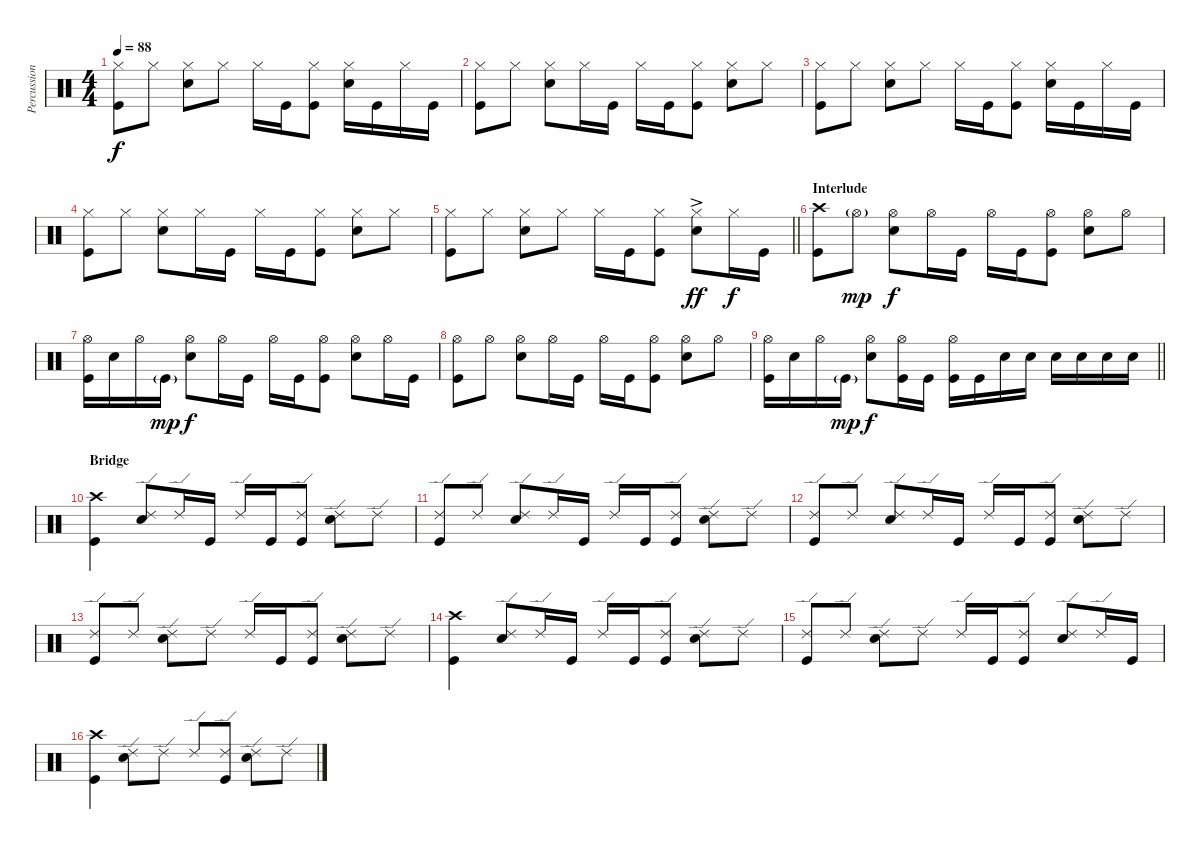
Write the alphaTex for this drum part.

\track ("Percussion" "Percussion") {instrument percussion}
\staff {score}
\articulation defaults
\ts (4 4)
\tempo 88
\clef neutral
\ks c
("Hi-Hat (closed)" "Kick (hit)").8{dy f} "Hi-Hat (closed)".8 ("Hi-Hat (closed)" "Snare (hit) 2").8 "Hi-Hat (closed)".8 "Hi-Hat (closed)".16 "Kick (hit)".16 ("Hi-Hat (closed)" "Kick (hit)").8 ("Hi-Hat (closed)" "Snare (hit) 2").16 "Kick (hit)".16 "Hi-Hat (closed)".16 "Kick (hit)".16 |
("Hi-Hat (closed)" "Kick (hit)").8 "Hi-Hat (closed)".8 ("Hi-Hat (closed)" "Snare (hit) 2").8 "Hi-Hat (closed)".16 "Kick (hit)".16 "Hi-Hat (closed)".16 "Kick (hit)".16 ("Hi-Hat (closed)" "Kick (hit)").8 ("Hi-Hat (closed)" "Snare (hit) 2").8 "Hi-Hat (closed)".8 |
("Hi-Hat (closed)" "Kick (hit)").8 "Hi-Hat (closed)".8 ("Hi-Hat (closed)" "Snare (hit) 2").8 "Hi-Hat (closed)".8 "Hi-Hat (closed)".16 "Kick (hit)".16 ("Hi-Hat (closed)" "Kick (hit)").8 ("Hi-Hat (closed)" "Snare (hit) 2").16 "Kick (hit)".16 "Hi-Hat (closed)".16 "Kick (hit)".16 |
("Hi-Hat (closed)" "Kick (hit)").8 "Hi-Hat (closed)".8 ("Hi-Hat (closed)" "Snare (hit) 2").8 "Hi-Hat (closed)".16 "Kick (hit)".16 "Hi-Hat (closed)".16 "Kick (hit)".16 ("Hi-Hat (closed)" "Kick (hit)").8 ("Hi-Hat (closed)" "Snare (hit) 2").8 "Hi-Hat (closed)".8 |
\barLineRight lightlight
("Hi-Hat (closed)" "Kick (hit)").8 "Hi-Hat (closed)".8 ("Hi-Hat (closed)" "Snare (hit) 2").8 "Hi-Hat (closed)".8 "Hi-Hat (closed)".16 "Kick (hit)".16 ("Hi-Hat (closed)" "Kick (hit)").8 ("Hi-Hat (closed)" "Snare (hit) 2"{ac}).8{dy ff} "Hi-Hat (closed)".16{dy f} "Kick (hit)".16 |
\section ("" "Interlude")
("Crash high (hit)" "Kick (hit)").8 "Hi-Hat (open)"{g}.8{dy mp} ("Hi-Hat (open)" "Snare (hit) 2").8{dy f} "Hi-Hat (open)".16 "Kick (hit)".16 "Hi-Hat (open)".16 "Kick (hit)".16 ("Hi-Hat (open)" "Kick (hit)").8 ("Hi-Hat (open)" "Snare (hit) 2").8 "Hi-Hat (open)".8 |
("Hi-Hat (open)" "Kick (hit)").16 "Snare (hit) 2".16 "Hi-Hat (open)".16 "Kick (hit)"{g}.16{dy mp} ("Hi-Hat (open)" "Snare (hit) 2").8{dy f} "Hi-Hat (open)".16 "Kick (hit)".16 "Hi-Hat (open)".16 "Kick (hit)".16 ("Hi-Hat (open)" "Kick (hit)").8 ("Hi-Hat (open)" "Snare (hit) 2").8 "Hi-Hat (open)".16 "Kick (hit)".16 |
("Hi-Hat (open)" "Kick (hit)").8 "Hi-Hat (open)".8 ("Hi-Hat (open)" "Snare (hit) 2").8 "Hi-Hat (open)".16 "Kick (hit)".16 "Hi-Hat (open)".16 "Kick (hit)".16 ("Hi-Hat (open)" "Kick (hit)").8 ("Hi-Hat (open)" "Snare (hit) 2").8 "Hi-Hat (open)".8 |
\barLineRight lightlight
("Hi-Hat (open)" "Kick (hit)").16 "Snare (hit) 2".16 "Hi-Hat (open)".16 "Kick (hit)"{g}.16{dy mp} ("Hi-Hat (open)" "Snare (hit) 2").8{dy f} ("Hi-Hat (open)" "Kick (hit)").16 "Kick (hit)".16 ("Hi-Hat (open)" "Kick (hit)").16 "Kick (hit)".16 "Snare (hit) 2".16 "Snare (hit) 2".16 "Snare (hit) 2".16 "Snare (hit) 2".16 "Snare (hit) 2".16 "Snare (hit) 2".16 |
\section ("" "Bridge")
("Crash high (hit)" "Kick (hit)").4 ("Ride (edge) 2" "Snare (hit) 2").8 "Ride (edge) 2".16 "Kick (hit)".16 "Ride (edge) 2".16 "Kick (hit)".16 ("Ride (edge) 2" "Kick (hit)").8 ("Ride (edge) 2" "Snare (hit) 2").8 "Ride (edge) 2".8 |
("Ride (edge) 2" "Kick (hit)").8 "Ride (edge) 2".8 ("Ride (edge) 2" "Snare (hit) 2").8 "Ride (edge) 2".16 "Kick (hit)".16 "Ride (edge) 2".16 "Kick (hit)".16 ("Ride (edge) 2" "Kick (hit)").8 ("Ride (edge) 2" "Snare (hit) 2").8 "Ride (edge) 2".8 |
("Ride (edge) 2" "Kick (hit)").8 "Ride (edge) 2".8 ("Ride (edge) 2" "Snare (hit) 2").8 "Ride (edge) 2".16 "Kick (hit)".16 "Ride (edge) 2".16 "Kick (hit)".16 ("Ride (edge) 2" "Kick (hit)").8 ("Ride (edge) 2" "Snare (hit) 2").8 "Ride (edge) 2".8 |
("Ride (edge) 2" "Kick (hit)").8 "Ride (edge) 2".8 ("Ride (edge) 2" "Snare (hit) 2").8 "Ride (edge) 2".8 "Ride (edge) 2".16 "Kick (hit)".16 ("Ride (edge) 2" "Kick (hit)").8 ("Ride (edge) 2" "Snare (hit) 2").8 "Ride (edge) 2".8 |
("Crash high (hit)" "Kick (hit)").4 ("Ride (edge) 2" "Snare (hit) 2").8 "Ride (edge) 2".16 "Kick (hit)".16 "Ride (edge) 2".16 "Kick (hit)".16 ("Ride (edge) 2" "Kick (hit)").8 ("Ride (edge) 2" "Snare (hit) 2").8 "Ride (edge) 2".8 |
("Ride (edge) 2" "Kick (hit)").8 "Ride (edge) 2".8 ("Ride (edge) 2" "Snare (hit) 2").8 "Ride (edge) 2".8 "Ride (edge) 2".16 "Kick (hit)".16 ("Ride (edge) 2" "Kick (hit)").8 ("Ride (edge) 2" "Snare (hit) 2").8 "Ride (edge) 2".16 "Kick (hit)".16 |
("Crash high (hit)" "Kick (hit)").4 ("Ride (edge) 2" "Snare (hit) 2").8 "Ride (edge) 2".8 "Ride (edge) 2".8 ("Ride (edge) 2" "Kick (hit)").8 ("Ride (edge) 2" "Snare (hit) 2").8 "Ride (edge) 2".8
